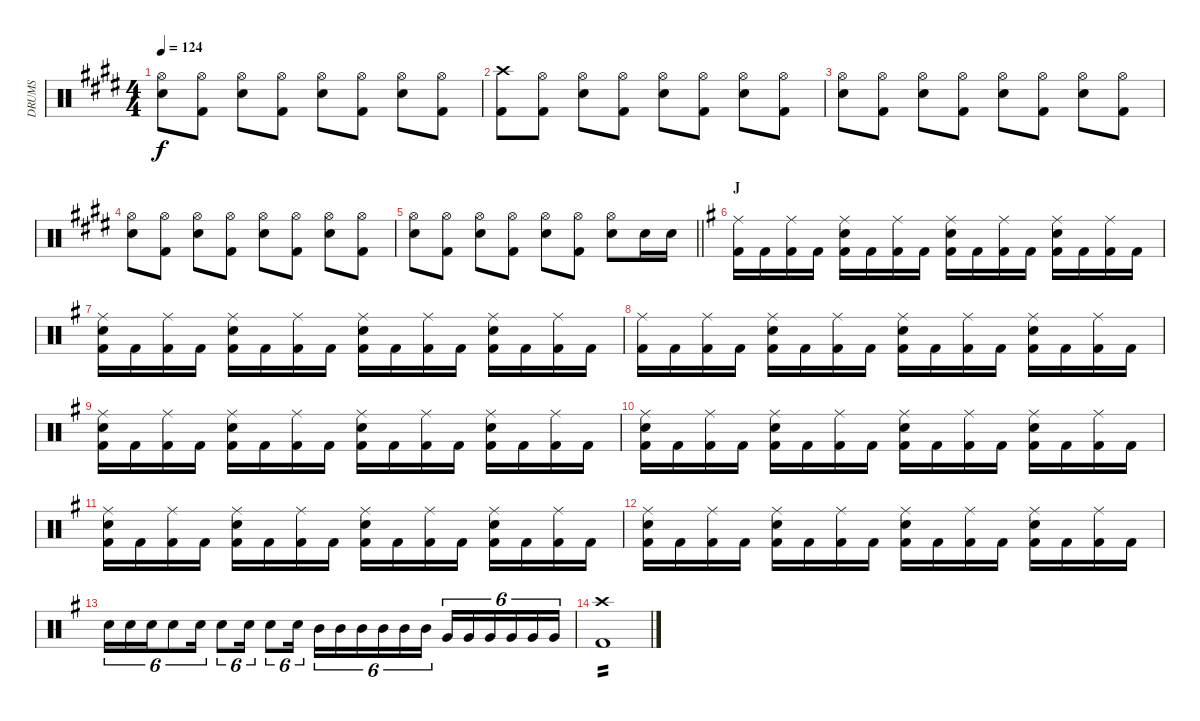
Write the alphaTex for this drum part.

\track ("DRUMS" "DRUMS") {instrument percussion}
\staff {score}
\articulation defaults
\ts (4 4)
\tempo 124
\clef neutral
\ks e
("Hi-Hat (open)" "Snare (hit) 2").8{dy f} ("Hi-Hat (open)" "Kick (hit) 2").8 ("Hi-Hat (open)" "Snare (hit) 2").8 ("Hi-Hat (open)" "Kick (hit) 2").8 ("Hi-Hat (open)" "Snare (hit) 2").8 ("Hi-Hat (open)" "Kick (hit) 2").8 ("Hi-Hat (open)" "Snare (hit) 2").8 ("Hi-Hat (open)" "Kick (hit) 2").8 |
("Crash high (hit)" "Kick (hit) 2").8 ("Hi-Hat (open)" "Kick (hit) 2").8 ("Hi-Hat (open)" "Snare (hit) 2").8 ("Hi-Hat (open)" "Kick (hit) 2").8 ("Hi-Hat (open)" "Snare (hit) 2").8 ("Hi-Hat (open)" "Kick (hit) 2").8 ("Hi-Hat (open)" "Snare (hit) 2").8 ("Hi-Hat (open)" "Kick (hit) 2").8 |
("Hi-Hat (open)" "Snare (hit) 2").8 ("Hi-Hat (open)" "Kick (hit) 2").8 ("Hi-Hat (open)" "Snare (hit) 2").8 ("Hi-Hat (open)" "Kick (hit) 2").8 ("Hi-Hat (open)" "Snare (hit) 2").8 ("Hi-Hat (open)" "Kick (hit) 2").8 ("Hi-Hat (open)" "Snare (hit) 2").8 ("Hi-Hat (open)" "Kick (hit) 2").8 |
("Hi-Hat (open)" "Snare (hit) 2").8 ("Hi-Hat (open)" "Kick (hit) 2").8 ("Hi-Hat (open)" "Snare (hit) 2").8 ("Hi-Hat (open)" "Kick (hit) 2").8 ("Hi-Hat (open)" "Snare (hit) 2").8 ("Hi-Hat (open)" "Kick (hit) 2").8 ("Hi-Hat (open)" "Snare (hit) 2").8 ("Hi-Hat (open)" "Kick (hit) 2").8 |
\barLineRight lightlight
("Hi-Hat (open)" "Snare (hit) 2").8 ("Hi-Hat (open)" "Kick (hit) 2").8 ("Hi-Hat (open)" "Snare (hit) 2").8 ("Hi-Hat (open)" "Kick (hit) 2").8 ("Hi-Hat (open)" "Snare (hit) 2").8 ("Hi-Hat (open)" "Kick (hit) 2").8 ("Hi-Hat (open)" "Snare (hit) 2").8 "Snare (hit) 2".16 "Snare (hit) 2".16 |
\section ("" "J")
\ks g
("Ride (middle)" "Kick (hit) 2").16 "Kick (hit) 2".16 ("Ride (middle)" "Kick (hit) 2").16 "Kick (hit) 2".16 ("Ride (middle)" "Kick (hit) 2" "Snare (hit) 2").16 "Kick (hit) 2".16 ("Ride (middle)" "Kick (hit) 2").16 "Kick (hit) 2".16 ("Ride (middle)" "Kick (hit) 2" "Snare (hit) 2").16 "Kick (hit) 2".16 ("Ride (middle)" "Kick (hit) 2").16 "Kick (hit) 2".16 ("Ride (middle)" "Kick (hit) 2" "Snare (hit) 2").16 "Kick (hit) 2".16 ("Ride (middle)" "Kick (hit) 2").16 "Kick (hit) 2".16 |
("Ride (middle)" "Kick (hit) 2" "Snare (hit) 2").16 "Kick (hit) 2".16 ("Ride (middle)" "Kick (hit) 2").16 "Kick (hit) 2".16 ("Ride (middle)" "Kick (hit) 2" "Snare (hit) 2").16 "Kick (hit) 2".16 ("Ride (middle)" "Kick (hit) 2").16 "Kick (hit) 2".16 ("Ride (middle)" "Kick (hit) 2" "Snare (hit) 2").16 "Kick (hit) 2".16 ("Ride (middle)" "Kick (hit) 2").16 "Kick (hit) 2".16 ("Ride (middle)" "Kick (hit) 2" "Snare (hit) 2").16 "Kick (hit) 2".16 ("Ride (middle)" "Kick (hit) 2").16 "Kick (hit) 2".16 |
("Ride (middle)" "Kick (hit) 2").16 "Kick (hit) 2".16 ("Ride (middle)" "Kick (hit) 2").16 "Kick (hit) 2".16 ("Ride (middle)" "Kick (hit) 2" "Snare (hit) 2").16 "Kick (hit) 2".16 ("Ride (middle)" "Kick (hit) 2").16 "Kick (hit) 2".16 ("Ride (middle)" "Kick (hit) 2" "Snare (hit) 2").16 "Kick (hit) 2".16 ("Ride (middle)" "Kick (hit) 2").16 "Kick (hit) 2".16 ("Ride (middle)" "Kick (hit) 2" "Snare (hit) 2").16 "Kick (hit) 2".16 ("Ride (middle)" "Kick (hit) 2").16 "Kick (hit) 2".16 |
("Ride (middle)" "Kick (hit) 2" "Snare (hit) 2").16 "Kick (hit) 2".16 ("Ride (middle)" "Kick (hit) 2").16 "Kick (hit) 2".16 ("Ride (middle)" "Kick (hit) 2" "Snare (hit) 2").16 "Kick (hit) 2".16 ("Ride (middle)" "Kick (hit) 2").16 "Kick (hit) 2".16 ("Ride (middle)" "Kick (hit) 2" "Snare (hit) 2").16 "Kick (hit) 2".16 ("Ride (middle)" "Kick (hit) 2").16 "Kick (hit) 2".16 ("Ride (middle)" "Kick (hit) 2" "Snare (hit) 2").16 "Kick (hit) 2".16 ("Ride (middle)" "Kick (hit) 2").16 "Kick (hit) 2".16 |
("Ride (middle)" "Kick (hit) 2" "Snare (hit) 2").16 "Kick (hit) 2".16 ("Ride (middle)" "Kick (hit) 2").16 "Kick (hit) 2".16 ("Ride (middle)" "Kick (hit) 2" "Snare (hit) 2").16 "Kick (hit) 2".16 ("Ride (middle)" "Kick (hit) 2").16 "Kick (hit) 2".16 ("Ride (middle)" "Kick (hit) 2" "Snare (hit) 2").16 "Kick (hit) 2".16 ("Ride (middle)" "Kick (hit) 2").16 "Kick (hit) 2".16 ("Ride (middle)" "Kick (hit) 2" "Snare (hit) 2").16 "Kick (hit) 2".16 ("Ride (middle)" "Kick (hit) 2").16 "Kick (hit) 2".16 |
("Ride (middle)" "Kick (hit) 2" "Snare (hit) 2").16 "Kick (hit) 2".16 ("Ride (middle)" "Kick (hit) 2").16 "Kick (hit) 2".16 ("Ride (middle)" "Kick (hit) 2" "Snare (hit) 2").16 "Kick (hit) 2".16 ("Ride (middle)" "Kick (hit) 2").16 "Kick (hit) 2".16 ("Ride (middle)" "Kick (hit) 2" "Snare (hit) 2").16 "Kick (hit) 2".16 ("Ride (middle)" "Kick (hit) 2").16 "Kick (hit) 2".16 ("Ride (middle)" "Kick (hit) 2" "Snare (hit) 2").16 "Kick (hit) 2".16 ("Ride (middle)" "Kick (hit) 2").16 "Kick (hit) 2".16 |
("Ride (middle)" "Kick (hit) 2" "Snare (hit) 2").16 "Kick (hit) 2".16 ("Ride (middle)" "Kick (hit) 2").16 "Kick (hit) 2".16 ("Ride (middle)" "Kick (hit) 2" "Snare (hit) 2").16 "Kick (hit) 2".16 ("Ride (middle)" "Kick (hit) 2").16 "Kick (hit) 2".16 ("Ride (middle)" "Kick (hit) 2" "Snare (hit) 2").16 "Kick (hit) 2".16 ("Ride (middle)" "Kick (hit) 2").16 "Kick (hit) 2".16 ("Ride (middle)" "Kick (hit) 2" "Snare (hit) 2").16 "Kick (hit) 2".16 ("Ride (middle)" "Kick (hit) 2").16 "Kick (hit) 2".16 |
"Snare (hit) 2".16{tu (6 4)} "Snare (hit) 2".16{tu (6 4)} "Snare (hit) 2".16{tu (6 4)} "Snare (hit) 2".8{tu (6 4)} "Snare (hit) 2".16{tu (6 4)} "Snare (hit) 2".8{tu (6 4)} "Snare (hit) 2".16{tu (6 4)} "Snare (hit) 2".8{tu (6 4)} "Snare (hit) 2".16{tu (6 4)} "Mid Tom (hit)".16{tu (6 4)} "Mid Tom (hit)".16{tu (6 4)} "Mid Tom (hit)".16{tu (6 4)} "Mid Tom (hit)".16{tu (6 4)} "Mid Tom (hit)".16{tu (6 4)} "Mid Tom (hit)".16{tu (6 4)} "Very Low Tom (hit)".16{tu (6 4)} "Very Low Tom (hit)".16{tu (6 4)} "Very Low Tom (hit)".16{tu (6 4)} "Very Low Tom (hit)".16{tu (6 4)} "Very Low Tom (hit)".16{tu (6 4)} "Very Low Tom (hit)".16{tu (6 4)} |
("Crash high (hit)" "Kick (hit) 2").1{tp 2}
